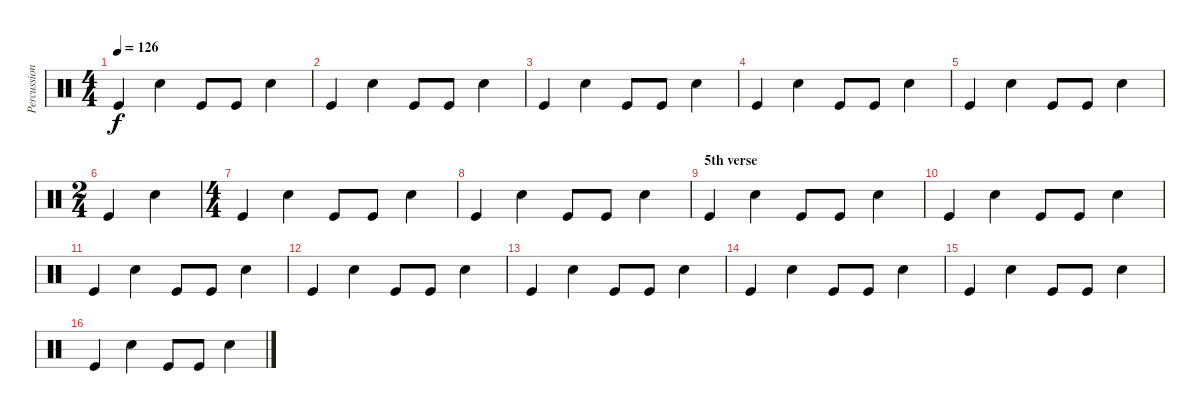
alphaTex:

\track ("Percussion" "Percussion") {instrument percussion}
\staff {score}
\articulation defaults
\ts (4 4)
\tempo 126
\clef neutral
\ks c "Kick (hit)".4{dy f} "Snare (hit) 2".4 "Kick (hit)".8 "Kick (hit)".8 "Snare (hit) 2".4
|
"Kick (hit)".4 "Snare (hit) 2".4 "Kick (hit)".8 "Kick (hit)".8 "Snare (hit) 2".4 |
"Kick (hit)".4 "Snare (hit) 2".4 "Kick (hit)".8 "Kick (hit)".8 "Snare (hit) 2".4 |
"Kick (hit)".4 "Snare (hit) 2".4 "Kick (hit)".8 "Kick (hit)".8 "Snare (hit) 2".4 |
"Kick (hit)".4 "Snare (hit) 2".4 "Kick (hit)".8 "Kick (hit)".8 "Snare (hit) 2".4 |
\ts (2 4)
"Kick (hit)".4 "Snare (hit) 2".4 |
\ts (4 4)
"Kick (hit)".4 "Snare (hit) 2".4 "Kick (hit)".8 "Kick (hit)".8 "Snare (hit) 2".4 |
"Kick (hit)".4 "Snare (hit) 2".4 "Kick (hit)".8 "Kick (hit)".8 "Snare (hit) 2".4 |
\section ("" "5th verse")
"Kick (hit)".4 "Snare (hit) 2".4 "Kick (hit)".8 "Kick (hit)".8 "Snare (hit) 2".4 |
"Kick (hit)".4 "Snare (hit) 2".4 "Kick (hit)".8 "Kick (hit)".8 "Snare (hit) 2".4 |
"Kick (hit)".4 "Snare (hit) 2".4 "Kick (hit)".8 "Kick (hit)".8 "Snare (hit) 2".4 |
"Kick (hit)".4 "Snare (hit) 2".4 "Kick (hit)".8 "Kick (hit)".8 "Snare (hit) 2".4 |
"Kick (hit)".4 "Snare (hit) 2".4 "Kick (hit)".8 "Kick (hit)".8 "Snare (hit) 2".4 |
"Kick (hit)".4 "Snare (hit) 2".4 "Kick (hit)".8 "Kick (hit)".8 "Snare (hit) 2".4 |
"Kick (hit)".4 "Snare (hit) 2".4 "Kick (hit)".8 "Kick (hit)".8 "Snare (hit) 2".4 |
"Kick (hit)".4 "Snare (hit) 2".4 "Kick (hit)".8 "Kick (hit)".8 "Snare (hit) 2".4
